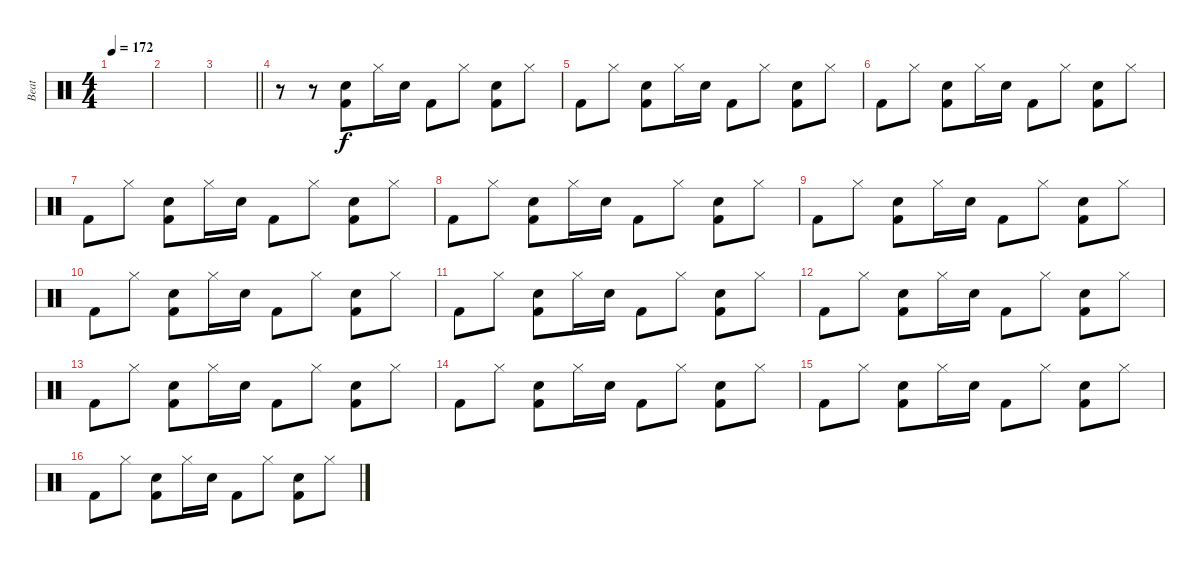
\track ("Beat" "Beat") {instrument percussion}
\staff {score}
\articulation defaults
\ts (4 4)
\tempo 172
\clef neutral
\ks c
|
|
\barLineRight lightlight
|
\section ("" " ")
r.8 r.8{volume 5} ("Kick (hit) 2" "Snare (hit) 2").8{volume 11} "Hi-Hat (closed)".16 "Snare (hit) 2".16 "Kick (hit) 2".8 "Hi-Hat (closed)".8 ("Kick (hit) 2" "Snare (hit) 2").8 "Hi-Hat (closed)".8 |
"Kick (hit) 2".8 "Hi-Hat (closed)".8 ("Kick (hit) 2" "Snare (hit) 2").8 "Hi-Hat (closed)".16 "Snare (hit) 2".16 "Kick (hit) 2".8 "Hi-Hat (closed)".8 ("Kick (hit) 2" "Snare (hit) 2").8 "Hi-Hat (closed)".8 |
"Kick (hit) 2".8 "Hi-Hat (closed)".8 ("Kick (hit) 2" "Snare (hit) 2").8 "Hi-Hat (closed)".16 "Snare (hit) 2".16 "Kick (hit) 2".8 "Hi-Hat (closed)".8 ("Kick (hit) 2" "Snare (hit) 2").8 "Hi-Hat (closed)".8 |
"Kick (hit) 2".8 "Hi-Hat (closed)".8 ("Kick (hit) 2" "Snare (hit) 2").8 "Hi-Hat (closed)".16 "Snare (hit) 2".16 "Kick (hit) 2".8 "Hi-Hat (closed)".8 ("Kick (hit) 2" "Snare (hit) 2").8 "Hi-Hat (closed)".8 |
"Kick (hit) 2".8 "Hi-Hat (closed)".8 ("Kick (hit) 2" "Snare (hit) 2").8{volume 13} "Hi-Hat (closed)".16 "Snare (hit) 2".16 "Kick (hit) 2".8 "Hi-Hat (closed)".8 ("Kick (hit) 2" "Snare (hit) 2").8 "Hi-Hat (closed)".8 |
"Kick (hit) 2".8 "Hi-Hat (closed)".8 ("Kick (hit) 2" "Snare (hit) 2").8 "Hi-Hat (closed)".16 "Snare (hit) 2".16 "Kick (hit) 2".8 "Hi-Hat (closed)".8 ("Kick (hit) 2" "Snare (hit) 2").8 "Hi-Hat (closed)".8 |
"Kick (hit) 2".8 "Hi-Hat (closed)".8 ("Kick (hit) 2" "Snare (hit) 2").8 "Hi-Hat (closed)".16 "Snare (hit) 2".16 "Kick (hit) 2".8 "Hi-Hat (closed)".8 ("Kick (hit) 2" "Snare (hit) 2").8 "Hi-Hat (closed)".8 |
"Kick (hit) 2".8 "Hi-Hat (closed)".8 ("Kick (hit) 2" "Snare (hit) 2").8 "Hi-Hat (closed)".16 "Snare (hit) 2".16 "Kick (hit) 2".8 "Hi-Hat (closed)".8 ("Kick (hit) 2" "Snare (hit) 2").8 "Hi-Hat (closed)".8 |
"Kick (hit) 2".8 "Hi-Hat (closed)".8 ("Kick (hit) 2" "Snare (hit) 2").8{volume 16} "Hi-Hat (closed)".16 "Snare (hit) 2".16 "Kick (hit) 2".8 "Hi-Hat (closed)".8 ("Kick (hit) 2" "Snare (hit) 2").8 "Hi-Hat (closed)".8 |
"Kick (hit) 2".8 "Hi-Hat (closed)".8 ("Kick (hit) 2" "Snare (hit) 2").8 "Hi-Hat (closed)".16 "Snare (hit) 2".16 "Kick (hit) 2".8 "Hi-Hat (closed)".8 ("Kick (hit) 2" "Snare (hit) 2").8 "Hi-Hat (closed)".8 |
"Kick (hit) 2".8 "Hi-Hat (closed)".8 ("Kick (hit) 2" "Snare (hit) 2").8 "Hi-Hat (closed)".16 "Snare (hit) 2".16 "Kick (hit) 2".8 "Hi-Hat (closed)".8 ("Kick (hit) 2" "Snare (hit) 2").8 "Hi-Hat (closed)".8 |
"Kick (hit) 2".8 "Hi-Hat (closed)".8 ("Kick (hit) 2" "Snare (hit) 2").8 "Hi-Hat (closed)".16 "Snare (hit) 2".16 "Kick (hit) 2".8 "Hi-Hat (closed)".8 ("Kick (hit) 2" "Snare (hit) 2").8 "Hi-Hat (closed)".8 |
"Kick (hit) 2".8 "Hi-Hat (closed)".8 ("Kick (hit) 2" "Snare (hit) 2").8 "Hi-Hat (closed)".16 "Snare (hit) 2".16 "Kick (hit) 2".8 "Hi-Hat (closed)".8 ("Kick (hit) 2" "Snare (hit) 2").8 "Hi-Hat (closed)".8
